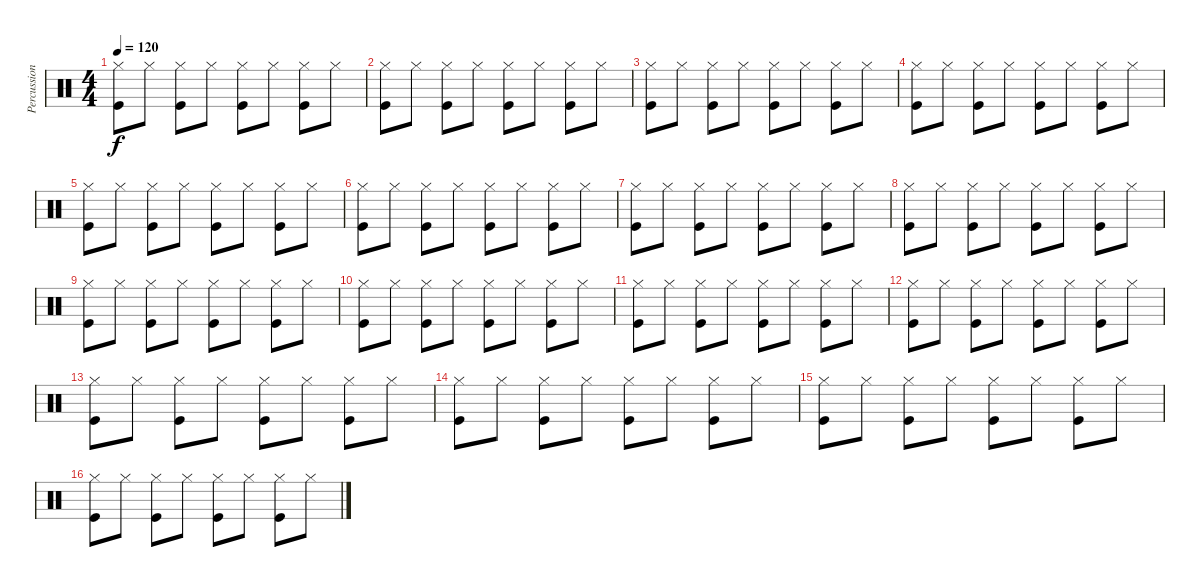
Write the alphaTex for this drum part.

\track ("Percussion" "Percussion") {instrument percussion}
\staff {score}
\articulation defaults
\ts (4 4)
\tempo 120
\clef neutral
\ks c
("Kick (hit)" "Hi-Hat (closed)").8{dy f} "Hi-Hat (closed)".8 ("Kick (hit)" "Hi-Hat (closed)").8 "Hi-Hat (closed)".8 ("Kick (hit)" "Hi-Hat (closed)").8 "Hi-Hat (closed)".8 ("Kick (hit)" "Hi-Hat (closed)").8 "Hi-Hat (closed)".8 |
("Kick (hit)" "Hi-Hat (closed)").8 "Hi-Hat (closed)".8 ("Kick (hit)" "Hi-Hat (closed)").8 "Hi-Hat (closed)".8 ("Kick (hit)" "Hi-Hat (closed)").8 "Hi-Hat (closed)".8 ("Kick (hit)" "Hi-Hat (closed)").8 "Hi-Hat (closed)".8 |
("Kick (hit)" "Hi-Hat (closed)").8 "Hi-Hat (closed)".8 ("Kick (hit)" "Hi-Hat (closed)").8 "Hi-Hat (closed)".8 ("Kick (hit)" "Hi-Hat (closed)").8 "Hi-Hat (closed)".8 ("Kick (hit)" "Hi-Hat (closed)").8 "Hi-Hat (closed)".8 |
("Kick (hit)" "Hi-Hat (closed)").8 "Hi-Hat (closed)".8 ("Kick (hit)" "Hi-Hat (closed)").8 "Hi-Hat (closed)".8 ("Kick (hit)" "Hi-Hat (closed)").8 "Hi-Hat (closed)".8 ("Kick (hit)" "Hi-Hat (closed)").8 "Hi-Hat (closed)".8 |
("Kick (hit)" "Hi-Hat (closed)").8 "Hi-Hat (closed)".8 ("Kick (hit)" "Hi-Hat (closed)").8 "Hi-Hat (closed)".8 ("Kick (hit)" "Hi-Hat (closed)").8 "Hi-Hat (closed)".8 ("Kick (hit)" "Hi-Hat (closed)").8 "Hi-Hat (closed)".8 |
("Kick (hit)" "Hi-Hat (closed)").8 "Hi-Hat (closed)".8 ("Kick (hit)" "Hi-Hat (closed)").8 "Hi-Hat (closed)".8 ("Kick (hit)" "Hi-Hat (closed)").8 "Hi-Hat (closed)".8 ("Kick (hit)" "Hi-Hat (closed)").8 "Hi-Hat (closed)".8 |
("Kick (hit)" "Hi-Hat (closed)").8 "Hi-Hat (closed)".8 ("Kick (hit)" "Hi-Hat (closed)").8 "Hi-Hat (closed)".8 ("Kick (hit)" "Hi-Hat (closed)").8 "Hi-Hat (closed)".8 ("Kick (hit)" "Hi-Hat (closed)").8 "Hi-Hat (closed)".8 |
("Kick (hit)" "Hi-Hat (closed)").8 "Hi-Hat (closed)".8 ("Kick (hit)" "Hi-Hat (closed)").8 "Hi-Hat (closed)".8 ("Kick (hit)" "Hi-Hat (closed)").8 "Hi-Hat (closed)".8 ("Kick (hit)" "Hi-Hat (closed)").8 "Hi-Hat (closed)".8 |
("Kick (hit)" "Hi-Hat (closed)").8 "Hi-Hat (closed)".8 ("Kick (hit)" "Hi-Hat (closed)").8 "Hi-Hat (closed)".8 ("Kick (hit)" "Hi-Hat (closed)").8 "Hi-Hat (closed)".8 ("Kick (hit)" "Hi-Hat (closed)").8 "Hi-Hat (closed)".8 |
("Kick (hit)" "Hi-Hat (closed)").8 "Hi-Hat (closed)".8 ("Kick (hit)" "Hi-Hat (closed)").8 "Hi-Hat (closed)".8 ("Kick (hit)" "Hi-Hat (closed)").8 "Hi-Hat (closed)".8 ("Kick (hit)" "Hi-Hat (closed)").8 "Hi-Hat (closed)".8 |
("Kick (hit)" "Hi-Hat (closed)").8 "Hi-Hat (closed)".8 ("Kick (hit)" "Hi-Hat (closed)").8 "Hi-Hat (closed)".8 ("Kick (hit)" "Hi-Hat (closed)").8 "Hi-Hat (closed)".8 ("Kick (hit)" "Hi-Hat (closed)").8 "Hi-Hat (closed)".8 |
("Kick (hit)" "Hi-Hat (closed)").8 "Hi-Hat (closed)".8 ("Kick (hit)" "Hi-Hat (closed)").8 "Hi-Hat (closed)".8 ("Kick (hit)" "Hi-Hat (closed)").8 "Hi-Hat (closed)".8 ("Kick (hit)" "Hi-Hat (closed)").8 "Hi-Hat (closed)".8 |
("Kick (hit)" "Hi-Hat (closed)").8 "Hi-Hat (closed)".8 ("Kick (hit)" "Hi-Hat (closed)").8 "Hi-Hat (closed)".8 ("Kick (hit)" "Hi-Hat (closed)").8 "Hi-Hat (closed)".8 ("Kick (hit)" "Hi-Hat (closed)").8 "Hi-Hat (closed)".8 |
("Kick (hit)" "Hi-Hat (closed)").8 "Hi-Hat (closed)".8 ("Kick (hit)" "Hi-Hat (closed)").8 "Hi-Hat (closed)".8 ("Kick (hit)" "Hi-Hat (closed)").8 "Hi-Hat (closed)".8 ("Kick (hit)" "Hi-Hat (closed)").8 "Hi-Hat (closed)".8 |
("Kick (hit)" "Hi-Hat (closed)").8 "Hi-Hat (closed)".8 ("Kick (hit)" "Hi-Hat (closed)").8 "Hi-Hat (closed)".8 ("Kick (hit)" "Hi-Hat (closed)").8 "Hi-Hat (closed)".8 ("Kick (hit)" "Hi-Hat (closed)").8 "Hi-Hat (closed)".8 |
("Kick (hit)" "Hi-Hat (closed)").8 "Hi-Hat (closed)".8 ("Kick (hit)" "Hi-Hat (closed)").8 "Hi-Hat (closed)".8 ("Kick (hit)" "Hi-Hat (closed)").8 "Hi-Hat (closed)".8 ("Kick (hit)" "Hi-Hat (closed)").8 "Hi-Hat (closed)".8
